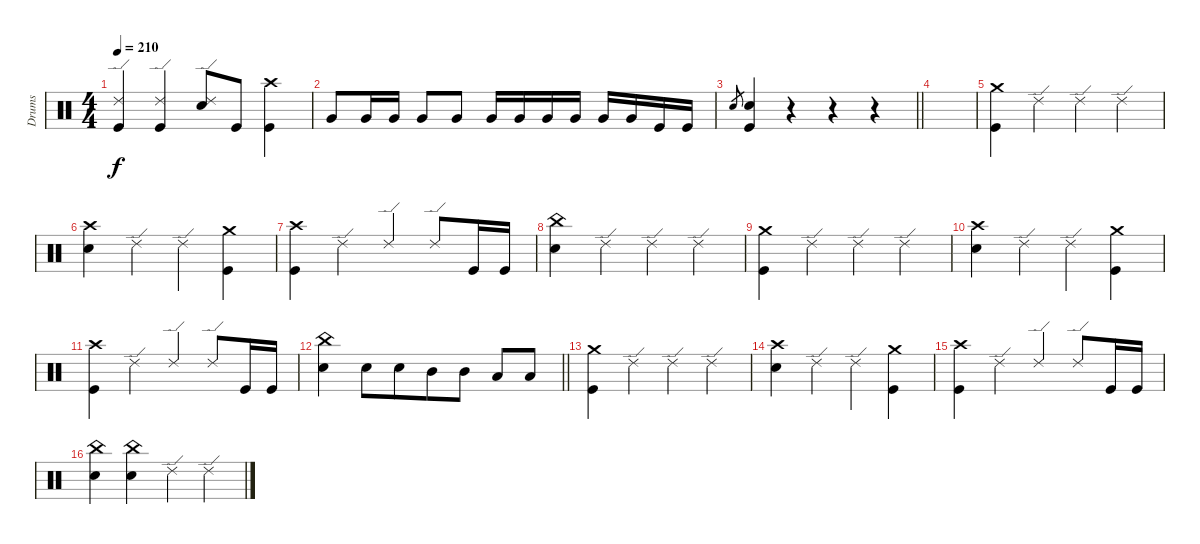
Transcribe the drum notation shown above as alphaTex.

\track ("Drums" "Drums") {instrument percussion}
\staff {score}
\articulation defaults
\ts (4 4)
\tempo 210
\clef neutral
\ks c
("Ride (edge) 2" "Kick (hit)").4{dy f} ("Ride (edge) 2" "Kick (hit)").4 ("Ride (edge) 2" "Electric Snare (hit)").8 "Kick (hit)".8 ("Crash high (hit)" "Kick (hit)").4 |
"Very Low Tom (hit)".8 "Very Low Tom (hit)".16 "Very Low Tom (hit)".16 "Very Low Tom (hit)".8 "Very Low Tom (hit)".8 "Very Low Tom (hit)".16 "Very Low Tom (hit)".16 "Very Low Tom (hit)".16 "Very Low Tom (hit)".16 "Very Low Tom (hit)".16 "Very Low Tom (hit)".16 "Kick (hit)".16{beam merge} "Kick (hit)".16 |
\barLineRight lightlight "Snare (hit)".8{gr}
("Electric Snare (hit)" "Kick (hit)").4 r.4 r.4 r.4 |
|
("Crash medium (hit)" "Kick (hit)").4 "Ride (edge) 2".4 "Ride (edge) 2".4 "Ride (edge) 2".4 |
("Crash high (hit)" "Electric Snare (hit)").4 "Ride (edge) 2".4 "Ride (edge) 2".4{beam merge} ("Crash medium (hit)" "Kick (hit)").4 |
("Crash high (hit)" "Kick (hit)").4 "Ride (edge) 2".4 "Ride (edge) 2".4{beam merge} "Ride (edge) 2".8{beam merge} "Kick (hit)".16 "Kick (hit)".16 |
("China (hit)" "Electric Snare (hit)").4{beam merge} "Ride (edge) 2".4 "Ride (edge) 2".4 "Ride (edge) 2".4 |
("Crash medium (hit)" "Kick (hit)").4 "Ride (edge) 2".4 "Ride (edge) 2".4 "Ride (edge) 2".4 |
("Crash high (hit)" "Electric Snare (hit)").4 "Ride (edge) 2".4 "Ride (edge) 2".4{beam merge} ("Crash medium (hit)" "Kick (hit)").4 |
("Crash high (hit)" "Kick (hit)").4 "Ride (edge) 2".4 "Ride (edge) 2".4{beam merge} "Ride (edge) 2".8{beam merge} "Kick (hit)".16 "Kick (hit)".16 |
\barLineRight lightlight
("China (hit)" "Electric Snare (hit)").4 "Electric Snare (hit)".8 "Electric Snare (hit)".8{beam merge} "Mid Tom (hit)".8{beam merge} "Mid Tom (hit)".8 "Low Tom (hit)".8 "Low Tom (hit)".8 |
("Crash medium (hit)" "Kick (hit)").4 "Ride (edge) 2".4 "Ride (edge) 2".4 "Ride (edge) 2".4 |
("Crash high (hit)" "Electric Snare (hit)").4 "Ride (edge) 2".4 "Ride (edge) 2".4{beam merge} ("Crash medium (hit)" "Kick (hit)").4 |
("Crash high (hit)" "Kick (hit)").4 "Ride (edge) 2".4 "Ride (edge) 2".4{beam merge} "Ride (edge) 2".8{beam merge} "Kick (hit)".16 "Kick (hit)".16 |
("China (hit)" "Electric Snare (hit)").4{beam merge} ("China (hit)" "Electric Snare (hit)").4 "Ride (edge) 2".4 "Ride (edge) 2".4
